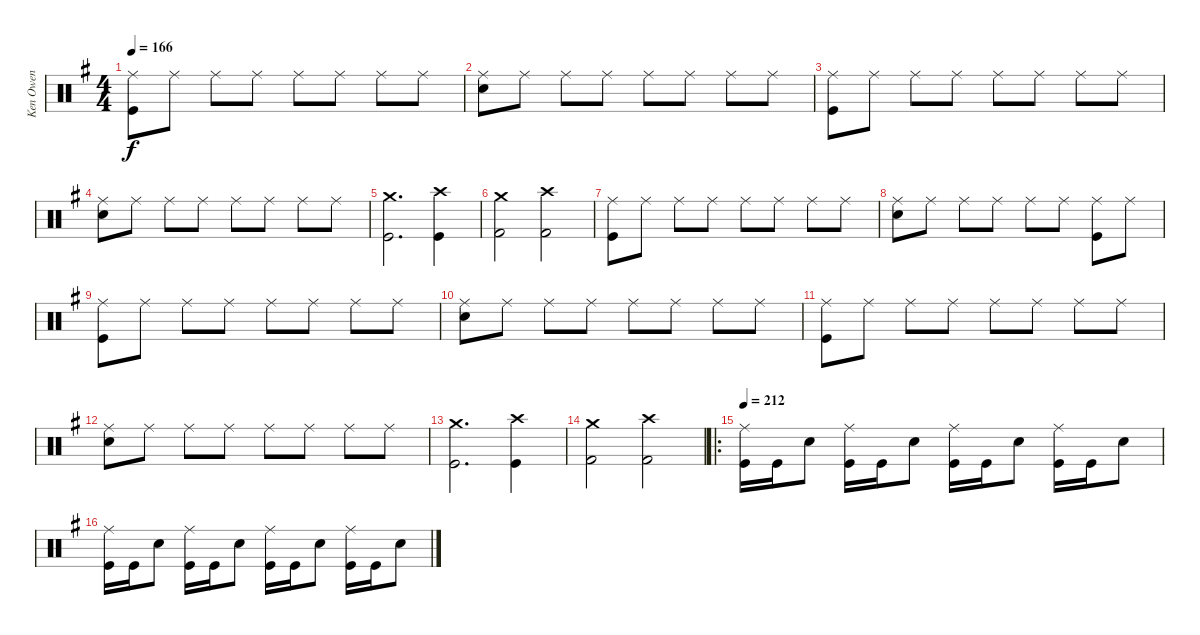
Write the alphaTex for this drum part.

\track ("Ken Owen" "Ken Owen") {instrument percussion}
\staff {score}
\articulation defaults
\ts (4 4)
\tempo 166
\clef neutral
\ks g
("Ride (middle)" "Kick (hit)").8{dy f} "Ride (middle)".8 "Ride (middle)".8 "Ride (middle)".8 "Ride (middle)".8 "Ride (middle)".8 "Ride (middle)".8 "Ride (middle)".8 |
("Ride (middle)" "Snare (hit) 2").8 "Ride (middle)".8 "Ride (middle)".8 "Ride (middle)".8 "Ride (middle)".8 "Ride (middle)".8 "Ride (middle)".8 "Ride (middle)".8 |
("Ride (middle)" "Kick (hit)").8 "Ride (middle)".8 "Ride (middle)".8 "Ride (middle)".8 "Ride (middle)".8 "Ride (middle)".8 "Ride (middle)".8 "Ride (middle)".8 |
("Ride (middle)" "Snare (hit) 2").8 "Ride (middle)".8 "Ride (middle)".8 "Ride (middle)".8 "Ride (middle)".8 "Ride (middle)".8 "Ride (middle)".8 "Ride (middle)".8 |
("Crash medium (hit)" "Kick (hit)").2{d} ("Crash high (hit)" "Kick (hit)").4 |
("Crash medium (hit)" "Kick (hit) 2").2 ("Crash high (hit)" "Kick (hit) 2").2 |
("Ride (middle)" "Kick (hit)").8 "Ride (middle)".8 "Ride (middle)".8 "Ride (middle)".8 "Ride (middle)".8 "Ride (middle)".8 "Ride (middle)".8 "Ride (middle)".8 |
("Ride (middle)" "Snare (hit) 2").8 "Ride (middle)".8 "Ride (middle)".8 "Ride (middle)".8 "Ride (middle)".8 "Ride (middle)".8 ("Ride (middle)" "Kick (hit)").8 "Ride (middle)".8 |
("Ride (middle)" "Kick (hit)").8 "Ride (middle)".8 "Ride (middle)".8 "Ride (middle)".8 "Ride (middle)".8 "Ride (middle)".8 "Ride (middle)".8 "Ride (middle)".8 |
("Ride (middle)" "Snare (hit) 2").8 "Ride (middle)".8 "Ride (middle)".8 "Ride (middle)".8 "Ride (middle)".8 "Ride (middle)".8 "Ride (middle)".8 "Ride (middle)".8 |
("Ride (middle)" "Kick (hit)").8 "Ride (middle)".8 "Ride (middle)".8 "Ride (middle)".8 "Ride (middle)".8 "Ride (middle)".8 "Ride (middle)".8 "Ride (middle)".8 |
("Ride (middle)" "Snare (hit) 2").8 "Ride (middle)".8 "Ride (middle)".8 "Ride (middle)".8 "Ride (middle)".8 "Ride (middle)".8 "Ride (middle)".8 "Ride (middle)".8 |
("Crash medium (hit)" "Kick (hit)").2{d} ("Crash high (hit)" "Kick (hit)").4 |
("Crash medium (hit)" "Kick (hit) 2").2 ("Crash high (hit)" "Kick (hit) 2").2 |
\ro
\tempo 212
("Ride (middle)" "Kick (hit)").16 "Kick (hit)".16 "Snare (hit) 2".8 ("Ride (middle)" "Kick (hit)").16 "Kick (hit)".16 "Snare (hit) 2".8 ("Ride (middle)" "Kick (hit)").16 "Kick (hit)".16 "Snare (hit) 2".8 ("Ride (middle)" "Kick (hit)").16 "Kick (hit)".16 "Snare (hit) 2".8 |
("Ride (middle)" "Kick (hit)").16 "Kick (hit)".16 "Snare (hit) 2".8 ("Ride (middle)" "Kick (hit)").16 "Kick (hit)".16 "Snare (hit) 2".8 ("Ride (middle)" "Kick (hit)").16 "Kick (hit)".16 "Snare (hit) 2".8 ("Ride (middle)" "Kick (hit)").16 "Kick (hit)".16 "Snare (hit) 2".8
